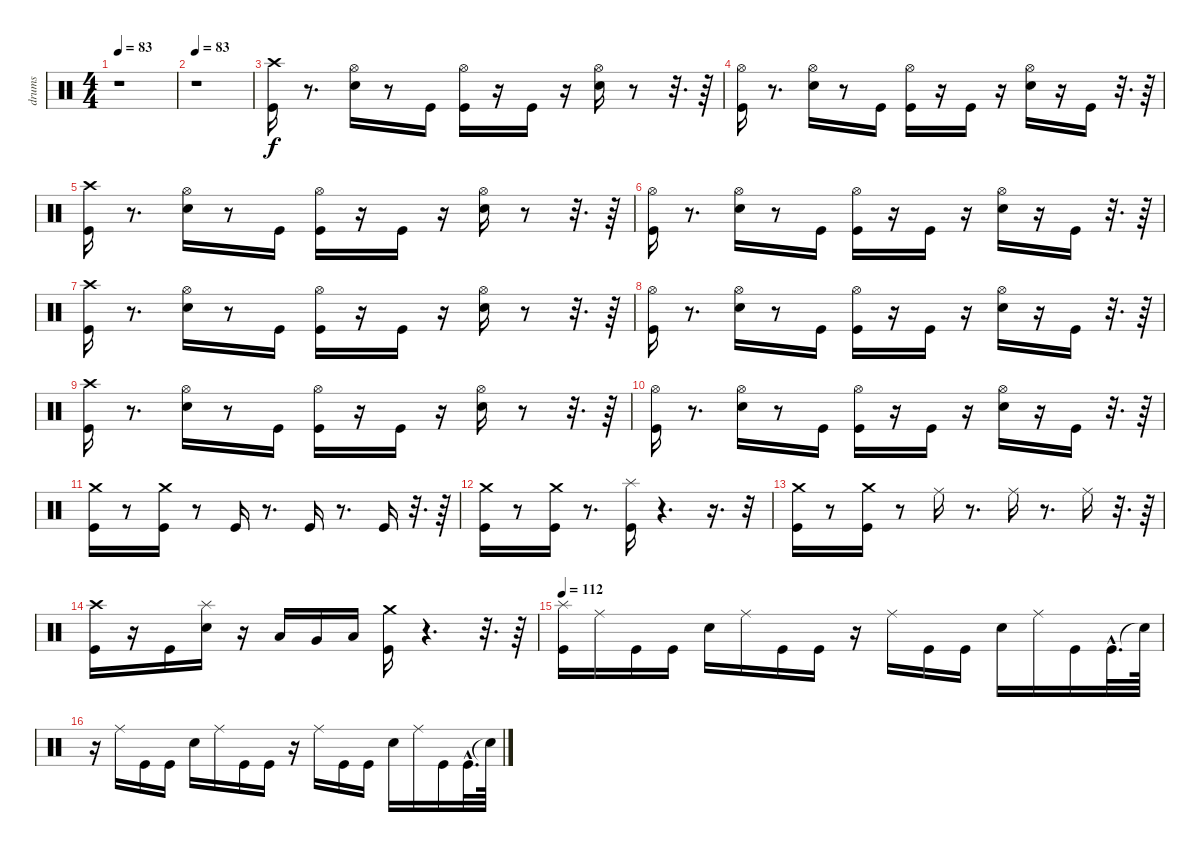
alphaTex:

\track ("drums" "drums") {instrument percussion}
\staff {score}
\articulation defaults
\ts (4 4)
\tempo 83
\clef neutral
\ks c
r.1{dy f} |
\tempo 83
r.1 |
("Crash high (hit)" "Kick (hit)").16 r.8{d} ("Hi-Hat (open)" "Electric Snare (hit)").16 r.8 "Kick (hit)".16 ("Hi-Hat (open)" "Kick (hit)").16 r.16 "Kick (hit)".16 r.16 ("Hi-Hat (open)" "Electric Snare (hit)").16 r.8 r.32{d} r.64 |
("Hi-Hat (open)" "Kick (hit)").16 r.8{d} ("Hi-Hat (open)" "Electric Snare (hit)").16 r.8 "Kick (hit)".16 ("Hi-Hat (open)" "Kick (hit)").16 r.16 "Kick (hit)".16 r.16 ("Hi-Hat (open)" "Electric Snare (hit)").16 r.16 "Kick (hit)".16 r.32{d} r.64 |
("Crash high (hit)" "Kick (hit)").16 r.8{d} ("Hi-Hat (open)" "Electric Snare (hit)").16 r.8 "Kick (hit)".16 ("Hi-Hat (open)" "Kick (hit)").16 r.16 "Kick (hit)".16 r.16 ("Hi-Hat (open)" "Electric Snare (hit)").16 r.8 r.32{d} r.64 |
("Hi-Hat (open)" "Kick (hit)").16 r.8{d} ("Hi-Hat (open)" "Electric Snare (hit)").16 r.8 "Kick (hit)".16 ("Hi-Hat (open)" "Kick (hit)").16 r.16 "Kick (hit)".16 r.16 ("Hi-Hat (open)" "Electric Snare (hit)").16 r.16 "Kick (hit)".16 r.32{d} r.64 |
("Crash high (hit)" "Kick (hit)").16 r.8{d} ("Hi-Hat (open)" "Electric Snare (hit)").16 r.8 "Kick (hit)".16 ("Hi-Hat (open)" "Kick (hit)").16 r.16 "Kick (hit)".16 r.16 ("Hi-Hat (open)" "Electric Snare (hit)").16 r.8 r.32{d} r.64 |
("Hi-Hat (open)" "Kick (hit)").16 r.8{d} ("Hi-Hat (open)" "Electric Snare (hit)").16 r.8 "Kick (hit)".16 ("Hi-Hat (open)" "Kick (hit)").16 r.16 "Kick (hit)".16 r.16 ("Hi-Hat (open)" "Electric Snare (hit)").16 r.16 "Kick (hit)".16 r.32{d} r.64 |
("Crash high (hit)" "Kick (hit)").16 r.8{d} ("Hi-Hat (open)" "Electric Snare (hit)").16 r.8 "Kick (hit)".16 ("Hi-Hat (open)" "Kick (hit)").16 r.16 "Kick (hit)".16 r.16 ("Hi-Hat (open)" "Electric Snare (hit)").16 r.8 r.32{d} r.64 |
("Hi-Hat (open)" "Kick (hit)").16 r.8{d} ("Hi-Hat (open)" "Electric Snare (hit)").16 r.8 "Kick (hit)".16 ("Hi-Hat (open)" "Kick (hit)").16 r.16 "Kick (hit)".16 r.16 ("Hi-Hat (open)" "Electric Snare (hit)").16 r.16 "Kick (hit)".16 r.32{d} r.64 |
("Crash medium (hit)" "Kick (hit)").16 r.8 ("Crash medium (hit)" "Kick (hit)").16 r.8 "Kick (hit)".16 r.8{d} "Kick (hit)".16 r.8{d} "Kick (hit)".16 r.32{d} r.64 |
("Crash medium (hit)" "Kick (hit)").16 r.8 ("Crash medium (hit)" "Kick (hit)").16 r.8{d} ("Splash (hit)" "Kick (hit)").16 r.4{d} r.16{d} r.32 |
("Crash medium (hit)" "Kick (hit)").16 r.8 ("Crash medium (hit)" "Kick (hit)").16 r.8 "Ride (middle)".16 r.8{d} "Ride (middle)".16 r.8{d} "Ride (middle)".16 r.32{d} r.64 |
("Crash high (hit)" "Kick (hit)").16 r.16 "Kick (hit)".16 ("Splash (hit)" "Electric Snare (hit)").16 r.16 "Low Tom (hit)".16 "Very Low Tom (hit)".16 "Low Floor Tom (hit)".16 ("Crash medium (hit)" "Kick (hit)").16 r.4{d} r.32{d} r.64 |
\tempo 112
("Splash (hit)" "Kick (hit)").16 "Ride (middle)".16 "Kick (hit)".16 "Kick (hit)".16 "Electric Snare (hit)".16 "Ride (middle)".16 "Kick (hit)".16 "Kick (hit)".16 r.16 "Ride (middle)".16 "Kick (hit)".16 "Kick (hit)".16 "Electric Snare (hit)".16 "Ride (middle)".16 "Kick (hit)".16 "Kick (hit)"{hac}.32{d} "Snare (hit)"{t}.64 |
r.16 "Ride (middle)".16 "Kick (hit)".16 "Kick (hit)".16 "Electric Snare (hit)".16 "Ride (middle)".16 "Kick (hit)".16 "Kick (hit)".16 r.16 "Ride (middle)".16 "Kick (hit)".16 "Kick (hit)".16 "Electric Snare (hit)".16 "Ride (middle)".16 "Kick (hit)".16 "Kick (hit)"{hac}.32{d} "Snare (hit)"{t}.64
